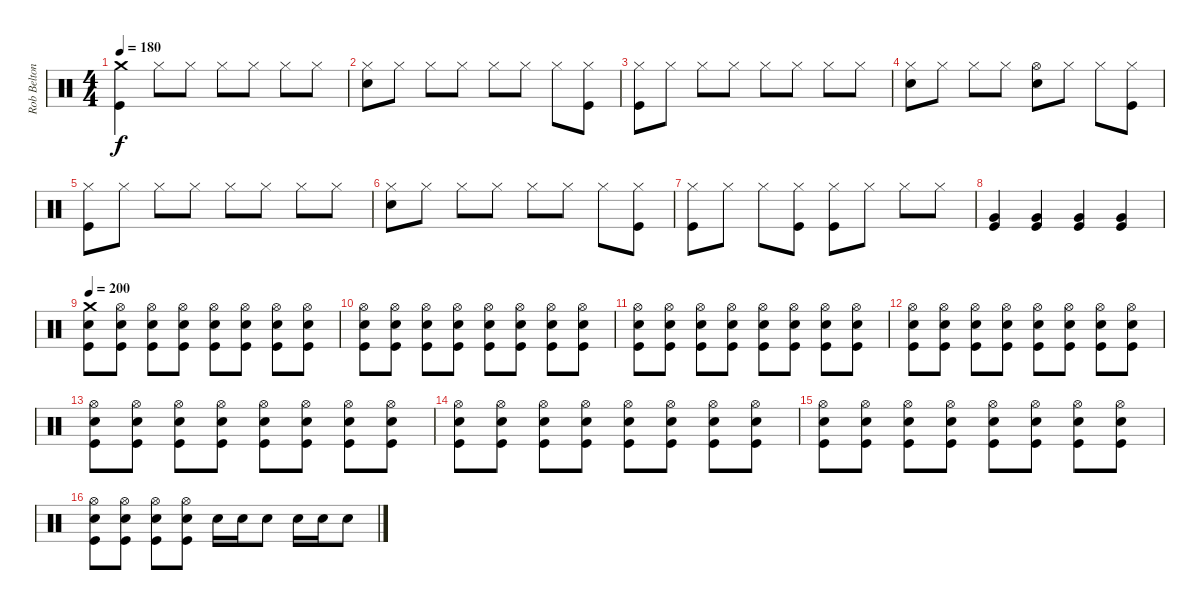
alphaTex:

\track ("Rob Belton" "Rob Belton") {instrument percussion}
\staff {score}
\articulation defaults
\ts (4 4)
\tempo 180
\clef neutral
\ks c
("Kick (hit)" "Crash medium (hit)").4{dy f} "Hi-Hat (closed)".8 "Hi-Hat (closed)".8 "Hi-Hat (closed)".8 "Hi-Hat (closed)".8 "Hi-Hat (closed)".8 "Hi-Hat (closed)".8 |
("Snare (hit) 2" "Hi-Hat (closed)").8 "Hi-Hat (closed)".8 "Hi-Hat (closed)".8 "Hi-Hat (closed)".8 "Hi-Hat (closed)".8 "Hi-Hat (closed)".8 "Hi-Hat (closed)".8 ("Hi-Hat (closed)" "Kick (hit)").8 |
("Kick (hit)" "Hi-Hat (closed)").8 "Hi-Hat (closed)".8 "Hi-Hat (closed)".8 "Hi-Hat (closed)".8 "Hi-Hat (closed)".8 "Hi-Hat (closed)".8 "Hi-Hat (closed)".8 "Hi-Hat (closed)".8 |
("Hi-Hat (closed)" "Snare (hit) 2").8 "Hi-Hat (closed)".8 "Hi-Hat (closed)".8 "Hi-Hat (closed)".8 ("Hi-Hat (open)" "Snare (hit) 2").8 "Hi-Hat (closed)".8 "Hi-Hat (closed)".8 ("Hi-Hat (closed)" "Kick (hit)").8 |
("Kick (hit)" "Hi-Hat (closed)").8 "Hi-Hat (closed)".8 "Hi-Hat (closed)".8 "Hi-Hat (closed)".8 "Hi-Hat (closed)".8 "Hi-Hat (closed)".8 "Hi-Hat (closed)".8 "Hi-Hat (closed)".8 |
("Snare (hit) 2" "Hi-Hat (closed)").8 "Hi-Hat (closed)".8 "Hi-Hat (closed)".8 "Hi-Hat (closed)".8 "Hi-Hat (closed)".8 "Hi-Hat (closed)".8 "Hi-Hat (closed)".8 ("Hi-Hat (closed)" "Kick (hit)").8 |
("Kick (hit)" "Hi-Hat (closed)").8 "Hi-Hat (closed)".8 "Hi-Hat (closed)".8 ("Hi-Hat (closed)" "Kick (hit)").8 ("Hi-Hat (closed)" "Kick (hit)").8 "Hi-Hat (closed)".8 "Hi-Hat (closed)".8 "Hi-Hat (closed)".8 |
("Very Low Tom (hit)" "Kick (hit)").4 ("Very Low Tom (hit)" "Kick (hit)").4 ("Very Low Tom (hit)" "Kick (hit)").4 ("Very Low Tom (hit)" "Kick (hit)").4 |
\tempo 200
("Kick (hit)" "Snare (hit) 2" "Crash medium (hit)").8 ("Kick (hit)" "Snare (hit) 2" "Hi-Hat (open)").8 ("Kick (hit)" "Snare (hit) 2" "Hi-Hat (open)").8 ("Kick (hit)" "Snare (hit) 2" "Hi-Hat (open)").8 ("Kick (hit)" "Snare (hit) 2" "Hi-Hat (open)").8 ("Kick (hit)" "Snare (hit) 2" "Hi-Hat (open)").8 ("Kick (hit)" "Snare (hit) 2" "Hi-Hat (open)").8 ("Kick (hit)" "Snare (hit) 2" "Hi-Hat (open)").8 |
("Kick (hit)" "Snare (hit) 2" "Hi-Hat (open)").8 ("Kick (hit)" "Snare (hit) 2" "Hi-Hat (open)").8 ("Kick (hit)" "Snare (hit) 2" "Hi-Hat (open)").8 ("Kick (hit)" "Snare (hit) 2" "Hi-Hat (open)").8 ("Kick (hit)" "Snare (hit) 2" "Hi-Hat (open)").8 ("Kick (hit)" "Snare (hit) 2" "Hi-Hat (open)").8 ("Kick (hit)" "Snare (hit) 2" "Hi-Hat (open)").8 ("Kick (hit)" "Snare (hit) 2" "Hi-Hat (open)").8 |
("Kick (hit)" "Snare (hit) 2" "Hi-Hat (open)").8 ("Kick (hit)" "Snare (hit) 2" "Hi-Hat (open)").8 ("Kick (hit)" "Snare (hit) 2" "Hi-Hat (open)").8 ("Kick (hit)" "Snare (hit) 2" "Hi-Hat (open)").8 ("Kick (hit)" "Snare (hit) 2" "Hi-Hat (open)").8 ("Kick (hit)" "Snare (hit) 2" "Hi-Hat (open)").8 ("Kick (hit)" "Snare (hit) 2" "Hi-Hat (open)").8 ("Kick (hit)" "Snare (hit) 2" "Hi-Hat (open)").8 |
("Kick (hit)" "Snare (hit) 2" "Hi-Hat (open)").8 ("Kick (hit)" "Snare (hit) 2" "Hi-Hat (open)").8 ("Kick (hit)" "Snare (hit) 2" "Hi-Hat (open)").8 ("Kick (hit)" "Snare (hit) 2" "Hi-Hat (open)").8 ("Kick (hit)" "Snare (hit) 2" "Hi-Hat (open)").8 ("Kick (hit)" "Snare (hit) 2" "Hi-Hat (open)").8 ("Kick (hit)" "Snare (hit) 2" "Hi-Hat (open)").8 ("Kick (hit)" "Snare (hit) 2" "Hi-Hat (open)").8 |
("Kick (hit)" "Snare (hit) 2" "Hi-Hat (open)").8 ("Kick (hit)" "Snare (hit) 2" "Hi-Hat (open)").8 ("Kick (hit)" "Snare (hit) 2" "Hi-Hat (open)").8 ("Kick (hit)" "Snare (hit) 2" "Hi-Hat (open)").8 ("Kick (hit)" "Snare (hit) 2" "Hi-Hat (open)").8 ("Kick (hit)" "Snare (hit) 2" "Hi-Hat (open)").8 ("Kick (hit)" "Snare (hit) 2" "Hi-Hat (open)").8 ("Kick (hit)" "Snare (hit) 2" "Hi-Hat (open)").8 |
("Kick (hit)" "Snare (hit) 2" "Hi-Hat (open)").8 ("Kick (hit)" "Snare (hit) 2" "Hi-Hat (open)").8 ("Kick (hit)" "Snare (hit) 2" "Hi-Hat (open)").8 ("Kick (hit)" "Snare (hit) 2" "Hi-Hat (open)").8 ("Kick (hit)" "Snare (hit) 2" "Hi-Hat (open)").8 ("Kick (hit)" "Snare (hit) 2" "Hi-Hat (open)").8 ("Kick (hit)" "Snare (hit) 2" "Hi-Hat (open)").8 ("Kick (hit)" "Snare (hit) 2" "Hi-Hat (open)").8 |
("Kick (hit)" "Snare (hit) 2" "Hi-Hat (open)").8 ("Kick (hit)" "Snare (hit) 2" "Hi-Hat (open)").8 ("Kick (hit)" "Snare (hit) 2" "Hi-Hat (open)").8 ("Kick (hit)" "Snare (hit) 2" "Hi-Hat (open)").8 ("Kick (hit)" "Snare (hit) 2" "Hi-Hat (open)").8 ("Kick (hit)" "Snare (hit) 2" "Hi-Hat (open)").8 ("Kick (hit)" "Snare (hit) 2" "Hi-Hat (open)").8 ("Kick (hit)" "Snare (hit) 2" "Hi-Hat (open)").8 |
("Kick (hit)" "Snare (hit) 2" "Hi-Hat (open)").8 ("Kick (hit)" "Snare (hit) 2" "Hi-Hat (open)").8 ("Kick (hit)" "Snare (hit) 2" "Hi-Hat (open)").8 ("Kick (hit)" "Snare (hit) 2" "Hi-Hat (open)").8 "Snare (hit) 2".16 "Snare (hit) 2".16 "Snare (hit) 2".8 "Snare (hit) 2".16 "Snare (hit) 2".16 "Snare (hit) 2".8
